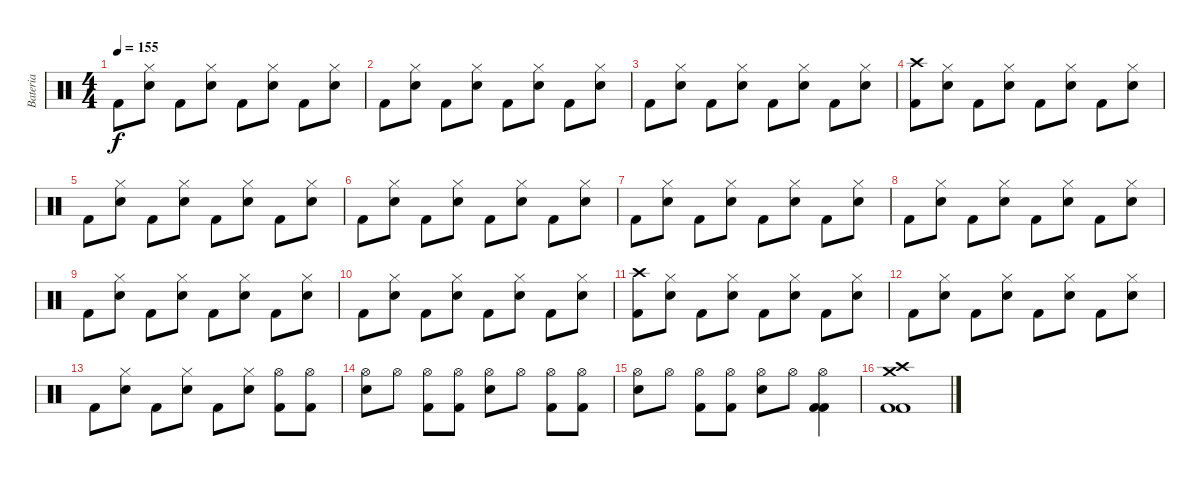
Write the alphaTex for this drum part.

\track ("Bateria" "Bateria") {instrument percussion}
\staff {score}
\articulation defaults
\ts (4 4)
\tempo 155
\clef neutral
\ks c "Kick (hit) 2".8{dy f}
("Electric Snare (hit)" "Hi-Hat (closed)").8 "Kick (hit) 2".8 ("Electric Snare (hit)" "Hi-Hat (closed)").8 "Kick (hit) 2".8 ("Electric Snare (hit)" "Hi-Hat (closed)").8 "Kick (hit) 2".8 ("Electric Snare (hit)" "Hi-Hat (closed)").8 |
"Kick (hit) 2".8 ("Electric Snare (hit)" "Hi-Hat (closed)").8 "Kick (hit) 2".8 ("Electric Snare (hit)" "Hi-Hat (closed)").8 "Kick (hit) 2".8 ("Electric Snare (hit)" "Hi-Hat (closed)").8 "Kick (hit) 2".8 ("Electric Snare (hit)" "Hi-Hat (closed)").8 |
"Kick (hit) 2".8 ("Electric Snare (hit)" "Hi-Hat (closed)").8 "Kick (hit) 2".8 ("Electric Snare (hit)" "Hi-Hat (closed)").8 "Kick (hit) 2".8 ("Electric Snare (hit)" "Hi-Hat (closed)").8 "Kick (hit) 2".8 ("Electric Snare (hit)" "Hi-Hat (closed)").8 |
("Kick (hit) 2" "Crash high (hit)").8 ("Electric Snare (hit)" "Hi-Hat (closed)").8 "Kick (hit) 2".8 ("Electric Snare (hit)" "Hi-Hat (closed)").8 "Kick (hit) 2".8 ("Electric Snare (hit)" "Hi-Hat (closed)").8 "Kick (hit) 2".8 ("Electric Snare (hit)" "Hi-Hat (closed)").8 |
"Kick (hit) 2".8 ("Electric Snare (hit)" "Hi-Hat (closed)").8 "Kick (hit) 2".8 ("Electric Snare (hit)" "Hi-Hat (closed)").8 "Kick (hit) 2".8 ("Electric Snare (hit)" "Hi-Hat (closed)").8 "Kick (hit) 2".8 ("Electric Snare (hit)" "Hi-Hat (closed)").8 |
"Kick (hit) 2".8 ("Electric Snare (hit)" "Hi-Hat (closed)").8 "Kick (hit) 2".8 ("Electric Snare (hit)" "Hi-Hat (closed)").8 "Kick (hit) 2".8 ("Electric Snare (hit)" "Hi-Hat (closed)").8 "Kick (hit) 2".8 ("Electric Snare (hit)" "Hi-Hat (closed)").8 |
"Kick (hit) 2".8 ("Electric Snare (hit)" "Hi-Hat (closed)").8 "Kick (hit) 2".8 ("Electric Snare (hit)" "Hi-Hat (closed)").8 "Kick (hit) 2".8 ("Electric Snare (hit)" "Hi-Hat (closed)").8 "Kick (hit) 2".8 ("Electric Snare (hit)" "Hi-Hat (closed)").8 |
"Kick (hit) 2".8 ("Electric Snare (hit)" "Hi-Hat (closed)").8 "Kick (hit) 2".8 ("Electric Snare (hit)" "Hi-Hat (closed)").8 "Kick (hit) 2".8 ("Electric Snare (hit)" "Hi-Hat (closed)").8 "Kick (hit) 2".8 ("Electric Snare (hit)" "Hi-Hat (closed)").8 |
"Kick (hit) 2".8 ("Electric Snare (hit)" "Hi-Hat (closed)").8 "Kick (hit) 2".8 ("Electric Snare (hit)" "Hi-Hat (closed)").8 "Kick (hit) 2".8 ("Electric Snare (hit)" "Hi-Hat (closed)").8 "Kick (hit) 2".8 ("Electric Snare (hit)" "Hi-Hat (closed)").8 |
"Kick (hit) 2".8 ("Electric Snare (hit)" "Hi-Hat (closed)").8 "Kick (hit) 2".8 ("Electric Snare (hit)" "Hi-Hat (closed)").8 "Kick (hit) 2".8 ("Electric Snare (hit)" "Hi-Hat (closed)").8 "Kick (hit) 2".8 ("Electric Snare (hit)" "Hi-Hat (closed)").8 |
("Kick (hit) 2" "Crash high (hit)").8 ("Electric Snare (hit)" "Hi-Hat (closed)").8 "Kick (hit) 2".8 ("Electric Snare (hit)" "Hi-Hat (closed)").8 "Kick (hit) 2".8 ("Electric Snare (hit)" "Hi-Hat (closed)").8 "Kick (hit) 2".8 ("Electric Snare (hit)" "Hi-Hat (closed)").8 |
"Kick (hit) 2".8 ("Electric Snare (hit)" "Hi-Hat (closed)").8 "Kick (hit) 2".8 ("Electric Snare (hit)" "Hi-Hat (closed)").8 "Kick (hit) 2".8 ("Electric Snare (hit)" "Hi-Hat (closed)").8 "Kick (hit) 2".8 ("Electric Snare (hit)" "Hi-Hat (closed)").8 |
"Kick (hit) 2".8 ("Electric Snare (hit)" "Hi-Hat (closed)").8 "Kick (hit) 2".8 ("Electric Snare (hit)" "Hi-Hat (closed)").8 "Kick (hit) 2".8 ("Electric Snare (hit)" "Hi-Hat (closed)").8 ("Kick (hit) 2" "Hi-Hat (open)").8 ("Kick (hit) 2" "Hi-Hat (open)").8 |
("Electric Snare (hit)" "Hi-Hat (open)").8 "Hi-Hat (open)".8 ("Kick (hit) 2" "Hi-Hat (open)").8 ("Kick (hit) 2" "Hi-Hat (open)").8 ("Electric Snare (hit)" "Hi-Hat (open)").8 "Hi-Hat (open)".8 ("Kick (hit) 2" "Hi-Hat (open)").8 ("Kick (hit) 2" "Hi-Hat (open)").8 |
("Electric Snare (hit)" "Hi-Hat (open)").8 "Hi-Hat (open)".8 ("Kick (hit) 2" "Hi-Hat (open)").8 ("Kick (hit) 2" "Hi-Hat (open)").8 ("Electric Snare (hit)" "Hi-Hat (open)").8 "Hi-Hat (open)".8 ("Kick (hit) 2" "Kick (hit) 2" "Hi-Hat (open)").4 |
("Kick (hit) 2" "Kick (hit) 2" "Crash high (hit)" "Crash medium (hit)").1
